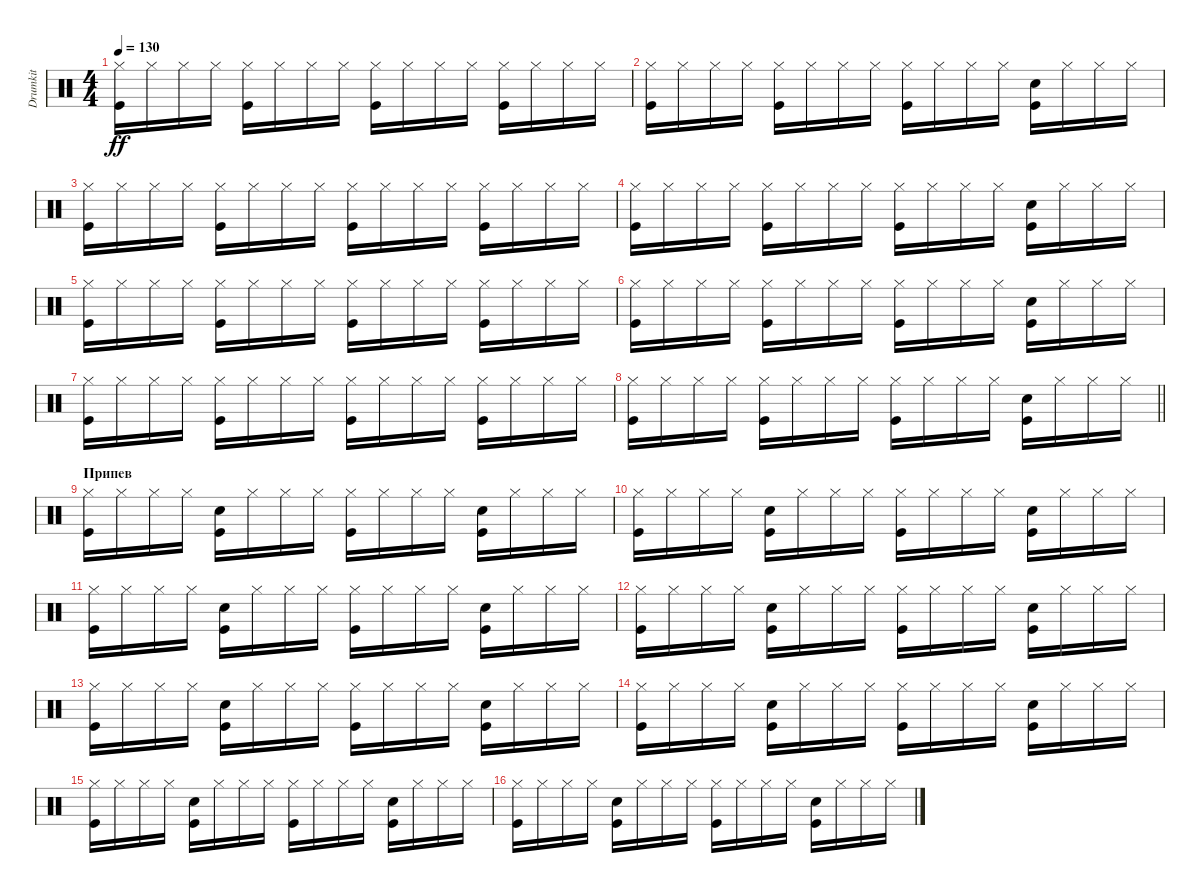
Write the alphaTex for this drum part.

\track ("Drumkit" "Drumkit") {instrument percussion}
\staff {score}
\articulation defaults
\ts (4 4)
\tempo 130
\clef neutral
\ks c
("Hi-Hat (closed)" "Kick (hit)").16{dy ff} "Hi-Hat (closed)".16 "Hi-Hat (closed)".16 "Hi-Hat (closed)".16 ("Hi-Hat (closed)" "Kick (hit)").16 "Hi-Hat (closed)".16 "Hi-Hat (closed)".16 "Hi-Hat (closed)".16 ("Hi-Hat (closed)" "Kick (hit)").16 "Hi-Hat (closed)".16 "Hi-Hat (closed)".16 "Hi-Hat (closed)".16 ("Hi-Hat (closed)" "Kick (hit)").16 "Hi-Hat (closed)".16 "Hi-Hat (closed)".16 "Hi-Hat (closed)".16 |
("Hi-Hat (closed)" "Kick (hit)").16 "Hi-Hat (closed)".16 "Hi-Hat (closed)".16 "Hi-Hat (closed)".16 ("Hi-Hat (closed)" "Kick (hit)").16 "Hi-Hat (closed)".16 "Hi-Hat (closed)".16 "Hi-Hat (closed)".16 ("Hi-Hat (closed)" "Kick (hit)").16 "Hi-Hat (closed)".16 "Hi-Hat (closed)".16 "Hi-Hat (closed)".16 ("Snare (hit) 2" "Kick (hit)").16 "Hi-Hat (closed)".16 "Hi-Hat (closed)".16 "Hi-Hat (closed)".16 |
("Hi-Hat (closed)" "Kick (hit)").16 "Hi-Hat (closed)".16 "Hi-Hat (closed)".16 "Hi-Hat (closed)".16 ("Hi-Hat (closed)" "Kick (hit)").16 "Hi-Hat (closed)".16 "Hi-Hat (closed)".16 "Hi-Hat (closed)".16 ("Hi-Hat (closed)" "Kick (hit)").16 "Hi-Hat (closed)".16 "Hi-Hat (closed)".16 "Hi-Hat (closed)".16 ("Hi-Hat (closed)" "Kick (hit)").16 "Hi-Hat (closed)".16 "Hi-Hat (closed)".16 "Hi-Hat (closed)".16 |
("Hi-Hat (closed)" "Kick (hit)").16 "Hi-Hat (closed)".16 "Hi-Hat (closed)".16 "Hi-Hat (closed)".16 ("Hi-Hat (closed)" "Kick (hit)").16 "Hi-Hat (closed)".16 "Hi-Hat (closed)".16 "Hi-Hat (closed)".16 ("Hi-Hat (closed)" "Kick (hit)").16 "Hi-Hat (closed)".16 "Hi-Hat (closed)".16 "Hi-Hat (closed)".16 ("Snare (hit) 2" "Kick (hit)").16 "Hi-Hat (closed)".16 "Hi-Hat (closed)".16 "Hi-Hat (closed)".16 |
("Hi-Hat (closed)" "Kick (hit)").16 "Hi-Hat (closed)".16 "Hi-Hat (closed)".16 "Hi-Hat (closed)".16 ("Hi-Hat (closed)" "Kick (hit)").16 "Hi-Hat (closed)".16 "Hi-Hat (closed)".16 "Hi-Hat (closed)".16 ("Hi-Hat (closed)" "Kick (hit)").16 "Hi-Hat (closed)".16 "Hi-Hat (closed)".16 "Hi-Hat (closed)".16 ("Hi-Hat (closed)" "Kick (hit)").16 "Hi-Hat (closed)".16 "Hi-Hat (closed)".16 "Hi-Hat (closed)".16 |
("Hi-Hat (closed)" "Kick (hit)").16 "Hi-Hat (closed)".16 "Hi-Hat (closed)".16 "Hi-Hat (closed)".16 ("Hi-Hat (closed)" "Kick (hit)").16 "Hi-Hat (closed)".16 "Hi-Hat (closed)".16 "Hi-Hat (closed)".16 ("Hi-Hat (closed)" "Kick (hit)").16 "Hi-Hat (closed)".16 "Hi-Hat (closed)".16 "Hi-Hat (closed)".16 ("Snare (hit) 2" "Kick (hit)").16 "Hi-Hat (closed)".16 "Hi-Hat (closed)".16 "Hi-Hat (closed)".16 |
("Hi-Hat (closed)" "Kick (hit)").16 "Hi-Hat (closed)".16 "Hi-Hat (closed)".16 "Hi-Hat (closed)".16 ("Hi-Hat (closed)" "Kick (hit)").16 "Hi-Hat (closed)".16 "Hi-Hat (closed)".16 "Hi-Hat (closed)".16 ("Hi-Hat (closed)" "Kick (hit)").16 "Hi-Hat (closed)".16 "Hi-Hat (closed)".16 "Hi-Hat (closed)".16 ("Hi-Hat (closed)" "Kick (hit)").16 "Hi-Hat (closed)".16 "Hi-Hat (closed)".16 "Hi-Hat (closed)".16 |
\barLineRight lightlight
("Hi-Hat (closed)" "Kick (hit)").16 "Hi-Hat (closed)".16 "Hi-Hat (closed)".16 "Hi-Hat (closed)".16 ("Hi-Hat (closed)" "Kick (hit)").16 "Hi-Hat (closed)".16 "Hi-Hat (closed)".16 "Hi-Hat (closed)".16 ("Hi-Hat (closed)" "Kick (hit)").16 "Hi-Hat (closed)".16 "Hi-Hat (closed)".16 "Hi-Hat (closed)".16 ("Snare (hit) 2" "Kick (hit)").16 "Hi-Hat (closed)".16 "Hi-Hat (closed)".16 "Hi-Hat (closed)".16 |
\section ("" "Припев")
("Hi-Hat (closed)" "Kick (hit)").16 "Hi-Hat (closed)".16 "Hi-Hat (closed)".16 "Hi-Hat (closed)".16 ("Snare (hit) 2" "Kick (hit)").16 "Hi-Hat (closed)".16 "Hi-Hat (closed)".16 "Hi-Hat (closed)".16 ("Hi-Hat (closed)" "Kick (hit)").16 "Hi-Hat (closed)".16 "Hi-Hat (closed)".16 "Hi-Hat (closed)".16 ("Snare (hit) 2" "Kick (hit)").16 "Hi-Hat (closed)".16 "Hi-Hat (closed)".16 "Hi-Hat (closed)".16 |
("Hi-Hat (closed)" "Kick (hit)").16 "Hi-Hat (closed)".16 "Hi-Hat (closed)".16 "Hi-Hat (closed)".16 ("Snare (hit) 2" "Kick (hit)").16 "Hi-Hat (closed)".16 "Hi-Hat (closed)".16 "Hi-Hat (closed)".16 ("Hi-Hat (closed)" "Kick (hit)").16 "Hi-Hat (closed)".16 "Hi-Hat (closed)".16 "Hi-Hat (closed)".16 ("Snare (hit) 2" "Kick (hit)").16 "Hi-Hat (closed)".16 "Hi-Hat (closed)".16 "Hi-Hat (closed)".16 |
("Hi-Hat (closed)" "Kick (hit)").16 "Hi-Hat (closed)".16 "Hi-Hat (closed)".16 "Hi-Hat (closed)".16 ("Snare (hit) 2" "Kick (hit)").16 "Hi-Hat (closed)".16 "Hi-Hat (closed)".16 "Hi-Hat (closed)".16 ("Hi-Hat (closed)" "Kick (hit)").16 "Hi-Hat (closed)".16 "Hi-Hat (closed)".16 "Hi-Hat (closed)".16 ("Snare (hit) 2" "Kick (hit)").16 "Hi-Hat (closed)".16 "Hi-Hat (closed)".16 "Hi-Hat (closed)".16 |
("Hi-Hat (closed)" "Kick (hit)").16 "Hi-Hat (closed)".16 "Hi-Hat (closed)".16 "Hi-Hat (closed)".16 ("Snare (hit) 2" "Kick (hit)").16 "Hi-Hat (closed)".16 "Hi-Hat (closed)".16 "Hi-Hat (closed)".16 ("Hi-Hat (closed)" "Kick (hit)").16 "Hi-Hat (closed)".16 "Hi-Hat (closed)".16 "Hi-Hat (closed)".16 ("Snare (hit) 2" "Kick (hit)").16 "Hi-Hat (closed)".16 "Hi-Hat (closed)".16 "Hi-Hat (closed)".16 |
("Hi-Hat (closed)" "Kick (hit)").16 "Hi-Hat (closed)".16 "Hi-Hat (closed)".16 "Hi-Hat (closed)".16 ("Snare (hit) 2" "Kick (hit)").16 "Hi-Hat (closed)".16 "Hi-Hat (closed)".16 "Hi-Hat (closed)".16 ("Hi-Hat (closed)" "Kick (hit)").16 "Hi-Hat (closed)".16 "Hi-Hat (closed)".16 "Hi-Hat (closed)".16 ("Snare (hit) 2" "Kick (hit)").16 "Hi-Hat (closed)".16 "Hi-Hat (closed)".16 "Hi-Hat (closed)".16 |
("Hi-Hat (closed)" "Kick (hit)").16 "Hi-Hat (closed)".16 "Hi-Hat (closed)".16 "Hi-Hat (closed)".16 ("Snare (hit) 2" "Kick (hit)").16 "Hi-Hat (closed)".16 "Hi-Hat (closed)".16 "Hi-Hat (closed)".16 ("Hi-Hat (closed)" "Kick (hit)").16 "Hi-Hat (closed)".16 "Hi-Hat (closed)".16 "Hi-Hat (closed)".16 ("Snare (hit) 2" "Kick (hit)").16 "Hi-Hat (closed)".16 "Hi-Hat (closed)".16 "Hi-Hat (closed)".16 |
("Hi-Hat (closed)" "Kick (hit)").16 "Hi-Hat (closed)".16 "Hi-Hat (closed)".16 "Hi-Hat (closed)".16 ("Snare (hit) 2" "Kick (hit)").16 "Hi-Hat (closed)".16 "Hi-Hat (closed)".16 "Hi-Hat (closed)".16 ("Hi-Hat (closed)" "Kick (hit)").16 "Hi-Hat (closed)".16 "Hi-Hat (closed)".16 "Hi-Hat (closed)".16 ("Snare (hit) 2" "Kick (hit)").16 "Hi-Hat (closed)".16 "Hi-Hat (closed)".16 "Hi-Hat (closed)".16 |
("Hi-Hat (closed)" "Kick (hit)").16 "Hi-Hat (closed)".16 "Hi-Hat (closed)".16 "Hi-Hat (closed)".16 ("Snare (hit) 2" "Kick (hit)").16 "Hi-Hat (closed)".16 "Hi-Hat (closed)".16 "Hi-Hat (closed)".16 ("Hi-Hat (closed)" "Kick (hit)").16 "Hi-Hat (closed)".16 "Hi-Hat (closed)".16 "Hi-Hat (closed)".16 ("Snare (hit) 2" "Kick (hit)").16 "Hi-Hat (closed)".16 "Hi-Hat (closed)".16 "Hi-Hat (closed)".16
